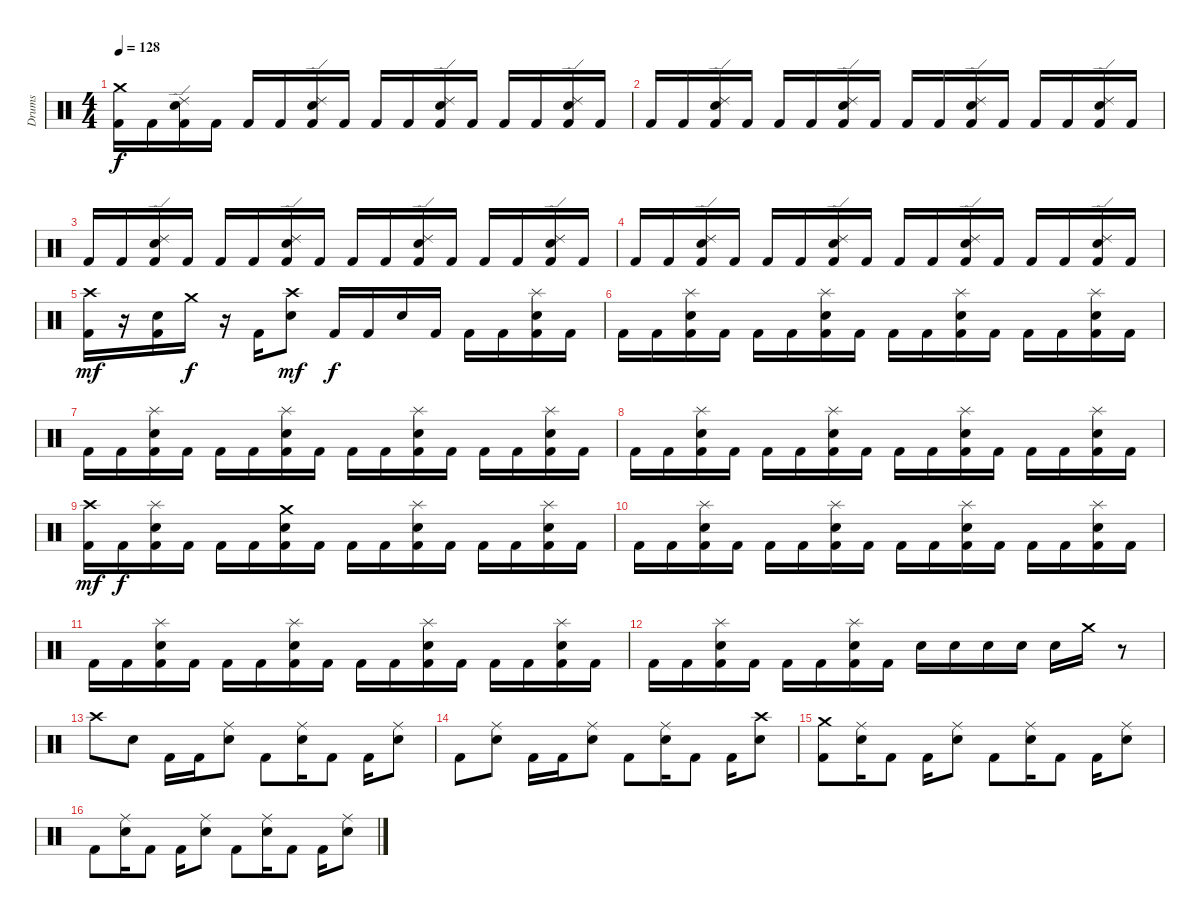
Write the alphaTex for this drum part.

\track ("Drums" "Drums") {instrument percussion}
\staff {score}
\articulation defaults
\ts (4 4)
\tempo 128
\clef neutral
\ks c
("Crash medium (hit)" "Kick (hit) 2").16{dy f} "Kick (hit) 2".16 ("Ride (edge) 2" "Snare (hit) 2" "Kick (hit) 2").16 "Kick (hit) 2".16 "Kick (hit) 2".16 "Kick (hit) 2".16 ("Ride (edge) 2" "Snare (hit) 2" "Kick (hit) 2").16 "Kick (hit) 2".16 "Kick (hit) 2".16 "Kick (hit) 2".16 ("Ride (edge) 2" "Snare (hit) 2" "Kick (hit) 2").16 "Kick (hit) 2".16 "Kick (hit) 2".16 "Kick (hit) 2".16 ("Ride (edge) 2" "Snare (hit) 2" "Kick (hit) 2").16 "Kick (hit) 2".16 |
"Kick (hit) 2".16 "Kick (hit) 2".16 ("Ride (edge) 2" "Snare (hit) 2" "Kick (hit) 2").16 "Kick (hit) 2".16 "Kick (hit) 2".16 "Kick (hit) 2".16 ("Ride (edge) 2" "Snare (hit) 2" "Kick (hit) 2").16 "Kick (hit) 2".16 "Kick (hit) 2".16 "Kick (hit) 2".16 ("Ride (edge) 2" "Snare (hit) 2" "Kick (hit) 2").16 "Kick (hit) 2".16 "Kick (hit) 2".16 "Kick (hit) 2".16 ("Ride (edge) 2" "Snare (hit) 2" "Kick (hit) 2").16 "Kick (hit) 2".16 |
"Kick (hit) 2".16 "Kick (hit) 2".16 ("Ride (edge) 2" "Snare (hit) 2" "Kick (hit) 2").16 "Kick (hit) 2".16 "Kick (hit) 2".16 "Kick (hit) 2".16 ("Ride (edge) 2" "Snare (hit) 2" "Kick (hit) 2").16 "Kick (hit) 2".16 "Kick (hit) 2".16 "Kick (hit) 2".16 ("Ride (edge) 2" "Snare (hit) 2" "Kick (hit) 2").16 "Kick (hit) 2".16 "Kick (hit) 2".16 "Kick (hit) 2".16 ("Ride (edge) 2" "Snare (hit) 2" "Kick (hit) 2").16 "Kick (hit) 2".16 |
"Kick (hit) 2".16 "Kick (hit) 2".16 ("Ride (edge) 2" "Snare (hit) 2" "Kick (hit) 2").16 "Kick (hit) 2".16 "Kick (hit) 2".16 "Kick (hit) 2".16 ("Ride (edge) 2" "Snare (hit) 2" "Kick (hit) 2").16 "Kick (hit) 2".16 "Kick (hit) 2".16 "Kick (hit) 2".16 ("Ride (edge) 2" "Snare (hit) 2" "Kick (hit) 2").16 "Kick (hit) 2".16 "Kick (hit) 2".16 "Kick (hit) 2".16 ("Ride (edge) 2" "Snare (hit) 2" "Kick (hit) 2").16 "Kick (hit) 2".16 |
("Crash high (hit)" "Kick (hit) 2").16{dy mf} r.16 ("Snare (hit) 2" "Kick (hit) 2").16 "Crash medium (hit)".16{dy f} r.16 "Kick (hit) 2".16 ("Crash high (hit)" "Snare (hit) 2").8{dy mf} "Kick (hit) 2".16{dy f} "Kick (hit) 2".16 "Snare (hit) 2".16 "Kick (hit) 2".16 "Kick (hit) 2".16 "Kick (hit) 2".16 ("Splash (hit)" "Snare (hit) 2" "Kick (hit) 2").16 "Kick (hit) 2".16 |
"Kick (hit) 2".16 "Kick (hit) 2".16 ("Splash (hit)" "Snare (hit) 2" "Kick (hit) 2").16 "Kick (hit) 2".16 "Kick (hit) 2".16 "Kick (hit) 2".16 ("Splash (hit)" "Snare (hit) 2" "Kick (hit) 2").16 "Kick (hit) 2".16 "Kick (hit) 2".16 "Kick (hit) 2".16 ("Splash (hit)" "Snare (hit) 2" "Kick (hit) 2").16 "Kick (hit) 2".16 "Kick (hit) 2".16 "Kick (hit) 2".16 ("Splash (hit)" "Snare (hit) 2" "Kick (hit) 2").16 "Kick (hit) 2".16 |
"Kick (hit) 2".16 "Kick (hit) 2".16 ("Splash (hit)" "Snare (hit) 2" "Kick (hit) 2").16 "Kick (hit) 2".16 "Kick (hit) 2".16 "Kick (hit) 2".16 ("Splash (hit)" "Snare (hit) 2" "Kick (hit) 2").16 "Kick (hit) 2".16 "Kick (hit) 2".16 "Kick (hit) 2".16 ("Splash (hit)" "Snare (hit) 2" "Kick (hit) 2").16 "Kick (hit) 2".16 "Kick (hit) 2".16 "Kick (hit) 2".16 ("Splash (hit)" "Snare (hit) 2" "Kick (hit) 2").16 "Kick (hit) 2".16 |
"Kick (hit) 2".16 "Kick (hit) 2".16 ("Splash (hit)" "Snare (hit) 2" "Kick (hit) 2").16 "Kick (hit) 2".16 "Kick (hit) 2".16 "Kick (hit) 2".16 ("Splash (hit)" "Snare (hit) 2" "Kick (hit) 2").16 "Kick (hit) 2".16 "Kick (hit) 2".16 "Kick (hit) 2".16 ("Splash (hit)" "Snare (hit) 2" "Kick (hit) 2").16 "Kick (hit) 2".16 "Kick (hit) 2".16 "Kick (hit) 2".16 ("Splash (hit)" "Snare (hit) 2" "Kick (hit) 2").16 "Kick (hit) 2".16 |
("Crash high (hit)" "Kick (hit) 2").16{dy mf} "Kick (hit) 2".16{dy f} ("Splash (hit)" "Snare (hit) 2" "Kick (hit) 2").16 "Kick (hit) 2".16 "Kick (hit) 2".16 "Kick (hit) 2".16 ("Crash medium (hit)" "Snare (hit) 2" "Kick (hit) 2").16 "Kick (hit) 2".16 "Kick (hit) 2".16 "Kick (hit) 2".16 ("Splash (hit)" "Snare (hit) 2" "Kick (hit) 2").16 "Kick (hit) 2".16 "Kick (hit) 2".16 "Kick (hit) 2".16 ("Splash (hit)" "Snare (hit) 2" "Kick (hit) 2").16 "Kick (hit) 2".16 |
"Kick (hit) 2".16 "Kick (hit) 2".16 ("Splash (hit)" "Snare (hit) 2" "Kick (hit) 2").16 "Kick (hit) 2".16 "Kick (hit) 2".16 "Kick (hit) 2".16 ("Splash (hit)" "Snare (hit) 2" "Kick (hit) 2").16 "Kick (hit) 2".16 "Kick (hit) 2".16 "Kick (hit) 2".16 ("Splash (hit)" "Snare (hit) 2" "Kick (hit) 2").16 "Kick (hit) 2".16 "Kick (hit) 2".16 "Kick (hit) 2".16 ("Splash (hit)" "Snare (hit) 2" "Kick (hit) 2").16 "Kick (hit) 2".16 |
"Kick (hit) 2".16 "Kick (hit) 2".16 ("Splash (hit)" "Snare (hit) 2" "Kick (hit) 2").16 "Kick (hit) 2".16 "Kick (hit) 2".16 "Kick (hit) 2".16 ("Splash (hit)" "Snare (hit) 2" "Kick (hit) 2").16 "Kick (hit) 2".16 "Kick (hit) 2".16 "Kick (hit) 2".16 ("Splash (hit)" "Snare (hit) 2" "Kick (hit) 2").16 "Kick (hit) 2".16 "Kick (hit) 2".16 "Kick (hit) 2".16 ("Splash (hit)" "Snare (hit) 2" "Kick (hit) 2").16 "Kick (hit) 2".16 |
"Kick (hit) 2".16 "Kick (hit) 2".16 ("Splash (hit)" "Snare (hit) 2" "Kick (hit) 2").16 "Kick (hit) 2".16 "Kick (hit) 2".16 "Kick (hit) 2".16 ("Splash (hit)" "Snare (hit) 2" "Kick (hit) 2").16 "Kick (hit) 2".16 "Snare (hit) 2".16 "Snare (hit) 2".16 "Snare (hit) 2".16 "Snare (hit) 2".16 "Snare (hit) 2".16 "Crash medium (hit)".16 r.8 |
"Crash high (hit)".8 "Snare (hit) 2".8 "Kick (hit) 2".16 "Kick (hit) 2".16 ("Ride (middle)" "Snare (hit) 2").8 "Kick (hit) 2".8 ("Ride (middle)" "Snare (hit) 2").16 "Kick (hit) 2".8 "Kick (hit) 2".16 ("Ride (middle)" "Snare (hit) 2").8 |
"Kick (hit) 2".8 ("Ride (middle)" "Snare (hit) 2").8 "Kick (hit) 2".16 "Kick (hit) 2".16 ("Ride (middle)" "Snare (hit) 2").8 "Kick (hit) 2".8 ("Ride (middle)" "Snare (hit) 2").16 "Kick (hit) 2".8 "Kick (hit) 2".16 ("Crash high (hit)" "Snare (hit) 2").8 |
("Crash medium (hit)" "Kick (hit) 2").8 ("Ride (middle)" "Snare (hit) 2").16 "Kick (hit) 2".8 "Kick (hit) 2".16 ("Ride (middle)" "Snare (hit) 2").8 "Kick (hit) 2".8 ("Ride (middle)" "Snare (hit) 2").16 "Kick (hit) 2".8 "Kick (hit) 2".16 ("Ride (middle)" "Snare (hit) 2").8 |
"Kick (hit) 2".8 ("Ride (middle)" "Snare (hit) 2").16 "Kick (hit) 2".8 "Kick (hit) 2".16 ("Ride (middle)" "Snare (hit) 2").8 "Kick (hit) 2".8 ("Ride (middle)" "Snare (hit) 2").16 "Kick (hit) 2".8 "Kick (hit) 2".16 ("Ride (middle)" "Snare (hit) 2").8
